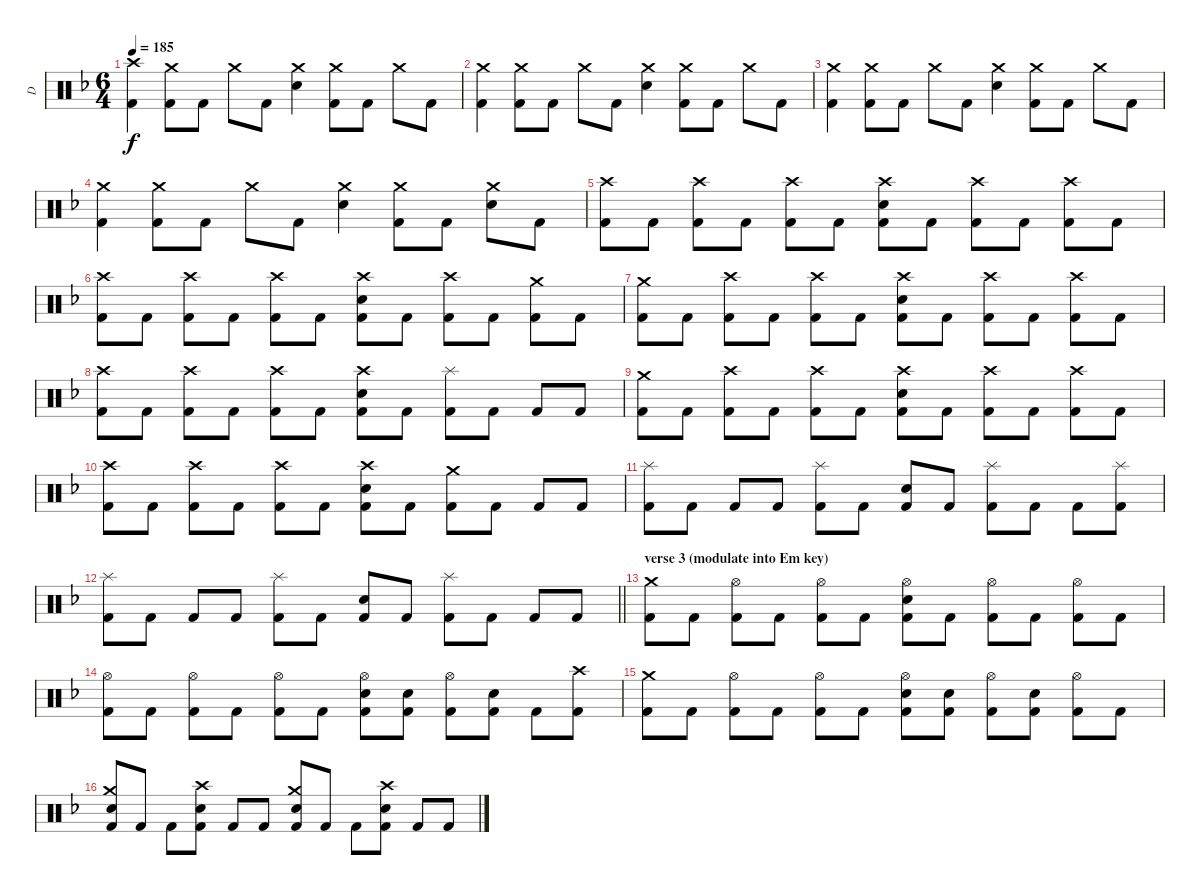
\track ("D" "D") {instrument percussion}
\staff {score}
\articulation defaults
\ts (6 4)
\tempo 185
\clef neutral
\ks dminor
("Crash high (hit)" "Kick (hit) 2").4{dy f} ("Crash medium (hit)" "Kick (hit) 2").8 "Kick (hit) 2".8 "Crash medium (hit)".8 "Kick (hit) 2".8 ("Crash medium (hit)" "Snare (hit) 2").4 ("Crash medium (hit)" "Kick (hit) 2").8 "Kick (hit) 2".8 "Crash medium (hit)".8 "Kick (hit) 2".8 |
("Crash medium (hit)" "Kick (hit) 2").4 ("Crash medium (hit)" "Kick (hit) 2").8 "Kick (hit) 2".8 "Crash medium (hit)".8 "Kick (hit) 2".8 ("Crash medium (hit)" "Snare (hit) 2").4 ("Crash medium (hit)" "Kick (hit) 2").8 "Kick (hit) 2".8 "Crash medium (hit)".8 "Kick (hit) 2".8 |
("Crash medium (hit)" "Kick (hit) 2").4 ("Crash medium (hit)" "Kick (hit) 2").8 "Kick (hit) 2".8 "Crash medium (hit)".8 "Kick (hit) 2".8 ("Crash medium (hit)" "Snare (hit) 2").4 ("Crash medium (hit)" "Kick (hit) 2").8 "Kick (hit) 2".8 "Crash medium (hit)".8 "Kick (hit) 2".8 |
("Crash medium (hit)" "Kick (hit) 2").4 ("Crash medium (hit)" "Kick (hit) 2").8 "Kick (hit) 2".8 "Crash medium (hit)".8 "Kick (hit) 2".8 ("Crash medium (hit)" "Snare (hit) 2").4 ("Crash medium (hit)" "Kick (hit) 2").8 "Kick (hit) 2".8 ("Crash medium (hit)" "Snare (hit) 2").8 "Kick (hit) 2".8 |
("Crash high (hit)" "Kick (hit) 2").8 "Kick (hit) 2".8 ("Crash high (hit)" "Kick (hit) 2").8 "Kick (hit) 2".8 ("Crash high (hit)" "Kick (hit) 2").8 "Kick (hit) 2".8 ("Crash high (hit)" "Snare (hit) 2" "Kick (hit) 2").8 "Kick (hit) 2".8 ("Crash high (hit)" "Kick (hit) 2").8 "Kick (hit) 2".8 ("Crash high (hit)" "Kick (hit) 2").8 "Kick (hit) 2".8 |
("Crash high (hit)" "Kick (hit) 2").8 "Kick (hit) 2".8 ("Crash high (hit)" "Kick (hit) 2").8 "Kick (hit) 2".8 ("Crash high (hit)" "Kick (hit) 2").8 "Kick (hit) 2".8 ("Crash high (hit)" "Snare (hit) 2" "Kick (hit) 2").8 "Kick (hit) 2".8 ("Crash high (hit)" "Kick (hit) 2").8 "Kick (hit) 2".8 ("Crash medium (hit)" "Kick (hit) 2").8 "Kick (hit) 2".8 |
("Crash medium (hit)" "Kick (hit) 2").8 "Kick (hit) 2".8 ("Crash high (hit)" "Kick (hit) 2").8 "Kick (hit) 2".8 ("Crash high (hit)" "Kick (hit) 2").8 "Kick (hit) 2".8 ("Crash high (hit)" "Snare (hit) 2" "Kick (hit) 2").8 "Kick (hit) 2".8 ("Crash high (hit)" "Kick (hit) 2").8 "Kick (hit) 2".8 ("Crash high (hit)" "Kick (hit) 2").8 "Kick (hit) 2".8 |
("Crash high (hit)" "Kick (hit) 2").8 "Kick (hit) 2".8 ("Crash high (hit)" "Kick (hit) 2").8 "Kick (hit) 2".8 ("Crash high (hit)" "Kick (hit) 2").8 "Kick (hit) 2".8 ("Crash high (hit)" "Snare (hit) 2" "Kick (hit) 2").8 "Kick (hit) 2".8 ("Splash (hit)" "Kick (hit) 2").8 "Kick (hit) 2".8 "Kick (hit) 2".8 "Kick (hit) 2".8 |
("Crash medium (hit)" "Kick (hit) 2").8 "Kick (hit) 2".8 ("Crash high (hit)" "Kick (hit) 2").8 "Kick (hit) 2".8 ("Crash high (hit)" "Kick (hit) 2").8 "Kick (hit) 2".8 ("Crash high (hit)" "Snare (hit) 2" "Kick (hit) 2").8 "Kick (hit) 2".8 ("Crash high (hit)" "Kick (hit) 2").8 "Kick (hit) 2".8 ("Crash high (hit)" "Kick (hit) 2").8 "Kick (hit) 2".8 |
("Crash high (hit)" "Kick (hit) 2").8 "Kick (hit) 2".8 ("Crash high (hit)" "Kick (hit) 2").8 "Kick (hit) 2".8 ("Crash high (hit)" "Kick (hit) 2").8 "Kick (hit) 2".8 ("Crash high (hit)" "Snare (hit) 2" "Kick (hit) 2").8 "Kick (hit) 2".8 ("Crash medium (hit)" "Kick (hit) 2").8 "Kick (hit) 2".8 "Kick (hit) 2".8 "Kick (hit) 2".8 |
("Splash (hit)" "Kick (hit) 2").8 "Kick (hit) 2".8 "Kick (hit) 2".8 "Kick (hit) 2".8 ("Splash (hit)" "Kick (hit) 2").8 "Kick (hit) 2".8 ("Snare (hit) 2" "Kick (hit) 2").8 "Kick (hit) 2".8 ("Splash (hit)" "Kick (hit) 2").8 "Kick (hit) 2".8 "Kick (hit) 2".8 ("Splash (hit)" "Kick (hit) 2").8 |
\barLineRight lightlight
("Splash (hit)" "Kick (hit) 2").8 "Kick (hit) 2".8 "Kick (hit) 2".8 "Kick (hit) 2".8 ("Splash (hit)" "Kick (hit) 2").8 "Kick (hit) 2".8 ("Snare (hit) 2" "Kick (hit) 2").8 "Kick (hit) 2".8 ("Splash (hit)" "Kick (hit) 2").8 "Kick (hit) 2".8 "Kick (hit) 2".8 "Kick (hit) 2".8 |
\section ("" "verse 3 (modulate into Em key)")
("Crash medium (hit)" "Kick (hit) 2").8 "Kick (hit) 2".8 ("Hi-Hat (open)" "Kick (hit) 2").8 "Kick (hit) 2".8 ("Hi-Hat (open)" "Kick (hit) 2").8 "Kick (hit) 2".8 ("Hi-Hat (open)" "Snare (hit) 2" "Kick (hit) 2").8 "Kick (hit) 2".8 ("Hi-Hat (open)" "Kick (hit) 2").8 "Kick (hit) 2".8 ("Hi-Hat (open)" "Kick (hit) 2").8 "Kick (hit) 2".8 |
("Hi-Hat (open)" "Kick (hit) 2").8 "Kick (hit) 2".8 ("Hi-Hat (open)" "Kick (hit) 2").8 "Kick (hit) 2".8 ("Hi-Hat (open)" "Kick (hit) 2").8 "Kick (hit) 2".8 ("Hi-Hat (open)" "Snare (hit) 2" "Kick (hit) 2").8 ("Snare (hit) 2" "Kick (hit) 2").8 ("Hi-Hat (open)" "Kick (hit) 2").8 ("Snare (hit) 2" "Kick (hit) 2").8 "Kick (hit) 2".8 ("Crash high (hit)" "Kick (hit) 2").8 |
("Crash medium (hit)" "Kick (hit) 2").8 "Kick (hit) 2".8 ("Hi-Hat (open)" "Kick (hit) 2").8 "Kick (hit) 2".8 ("Hi-Hat (open)" "Kick (hit) 2").8 "Kick (hit) 2".8 ("Hi-Hat (open)" "Snare (hit) 2" "Kick (hit) 2").8 ("Snare (hit) 2" "Kick (hit) 2").8 ("Hi-Hat (open)" "Kick (hit) 2").8 ("Snare (hit) 2" "Kick (hit) 2").8 ("Hi-Hat (open)" "Kick (hit) 2").8 "Kick (hit) 2".8 |
("Crash medium (hit)" "Snare (hit) 2" "Kick (hit) 2").8 "Kick (hit) 2".8 "Kick (hit) 2".8 ("Crash high (hit)" "Snare (hit) 2" "Kick (hit) 2").8 "Kick (hit) 2".8 "Kick (hit) 2".8 ("Crash medium (hit)" "Snare (hit) 2" "Kick (hit) 2").8 "Kick (hit) 2".8 "Kick (hit) 2".8 ("Crash high (hit)" "Snare (hit) 2" "Kick (hit) 2").8 "Kick (hit) 2".8 "Kick (hit) 2".8
